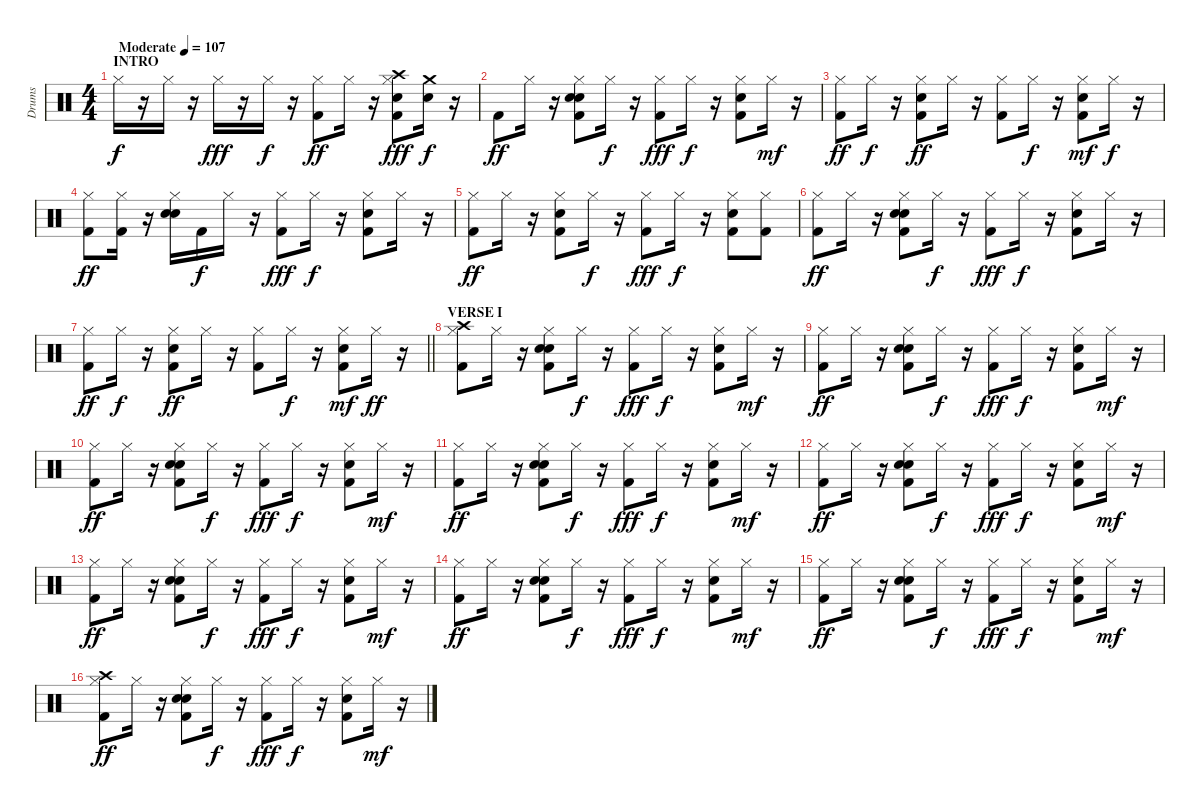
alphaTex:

\track ("Drums" "Drums") {instrument percussion}
\staff {score}
\articulation defaults
\ts (4 4)
\section ("" "INTRO")
\tempo (107 "Moderate")
\clef neutral
\ks c "Hi-Hat (closed)".16{dy f}
r.16 "Hi-Hat (closed)".16 r.16 "Hi-Hat (closed)".16{dy fff} r.16 "Hi-Hat (closed)".16{dy f} r.16 ("Kick (hit) 2" "Hi-Hat (closed)").8{dy ff} "Hi-Hat (closed)".16 r.16 ("Kick (hit) 2" "Electric Snare (hit)" "Hi-Hat (closed)" "Crash high (hit)").8{dy fff} ("Electric Snare (hit)" "Crash medium (hit)").16{dy f} r.16 |
"Kick (hit) 2".8{dy ff} "Hi-Hat (closed)".16 r.16 ("Kick (hit) 2" "Electric Snare (hit)" "Electric Snare (hit)" "Hi-Hat (closed)").8 "Hi-Hat (closed)".16{dy f} r.16 ("Kick (hit) 2" "Hi-Hat (closed)").8{dy fff} "Hi-Hat (closed)".16{dy f} r.16 ("Kick (hit) 2" "Electric Snare (hit)" "Hi-Hat (closed)").8 "Hi-Hat (closed)".16{dy mf} r.16 |
("Kick (hit) 2" "Hi-Hat (closed)").8{dy ff} "Hi-Hat (closed)".16{dy f} r.16 ("Kick (hit) 2" "Electric Snare (hit)" "Hi-Hat (closed)").8{dy ff} "Hi-Hat (closed)".16 r.16 ("Kick (hit) 2" "Hi-Hat (closed)").8 "Hi-Hat (closed)".16{dy f} r.16 ("Kick (hit) 2" "Electric Snare (hit)" "Hi-Hat (closed)").8{dy mf} "Hi-Hat (closed)".16{dy f} r.16 |
("Kick (hit) 2" "Hi-Hat (closed)").8{dy ff} ("Kick (hit) 2" "Hi-Hat (closed)").16 r.16 ("Electric Snare (hit)" "Electric Snare (hit)" "Hi-Hat (closed)").16 "Kick (hit) 2".16{dy f} "Hi-Hat (closed)".16 r.16 ("Kick (hit) 2" "Hi-Hat (closed)").8{dy fff} "Hi-Hat (closed)".16{dy f} r.16 ("Kick (hit) 2" "Electric Snare (hit)" "Hi-Hat (closed)").8 "Hi-Hat (closed)".16 r.16 |
("Kick (hit) 2" "Hi-Hat (closed)").8{dy ff} "Hi-Hat (closed)".16 r.16 ("Kick (hit) 2" "Electric Snare (hit)" "Hi-Hat (closed)").8 "Hi-Hat (closed)".16{dy f} r.16 ("Kick (hit) 2" "Hi-Hat (closed)").8{dy fff} "Hi-Hat (closed)".16{dy f} r.16 ("Kick (hit) 2" "Electric Snare (hit)" "Hi-Hat (closed)").8 ("Kick (hit) 2" "Hi-Hat (closed)").8 |
("Kick (hit) 2" "Hi-Hat (closed)").8{dy ff} "Hi-Hat (closed)".16 r.16 ("Kick (hit) 2" "Electric Snare (hit)" "Electric Snare (hit)" "Hi-Hat (closed)").8 "Hi-Hat (closed)".16{dy f} r.16 ("Kick (hit) 2" "Hi-Hat (closed)").8{dy fff} "Hi-Hat (closed)".16{dy f} r.16 ("Kick (hit) 2" "Electric Snare (hit)" "Hi-Hat (closed)").8 "Hi-Hat (closed)".16 r.16 |
\barLineRight lightlight
("Kick (hit) 2" "Hi-Hat (closed)").8{dy ff} "Hi-Hat (closed)".16{dy f} r.16 ("Kick (hit) 2" "Electric Snare (hit)" "Hi-Hat (closed)").8{dy ff} "Hi-Hat (closed)".16 r.16 ("Kick (hit) 2" "Hi-Hat (closed)").8 "Hi-Hat (closed)".16{dy f} r.16 ("Kick (hit) 2" "Electric Snare (hit)" "Hi-Hat (closed)").8{dy mf} "Hi-Hat (closed)".16{dy ff} r.16 |
\section ("" "VERSE I")
("Kick (hit) 2" "Hi-Hat (closed)" "Crash high (hit)").8 "Hi-Hat (closed)".16 r.16 ("Kick (hit) 2" "Electric Snare (hit)" "Electric Snare (hit)" "Hi-Hat (closed)").8 "Hi-Hat (closed)".16{dy f} r.16 ("Kick (hit) 2" "Hi-Hat (closed)").8{dy fff} "Hi-Hat (closed)".16{dy f} r.16 ("Kick (hit) 2" "Electric Snare (hit)" "Hi-Hat (closed)").8 "Hi-Hat (closed)".16{dy mf} r.16 |
("Kick (hit) 2" "Hi-Hat (closed)").8{dy ff} "Hi-Hat (closed)".16 r.16 ("Kick (hit) 2" "Electric Snare (hit)" "Electric Snare (hit)" "Hi-Hat (closed)").8 "Hi-Hat (closed)".16{dy f} r.16 ("Kick (hit) 2" "Hi-Hat (closed)").8{dy fff} "Hi-Hat (closed)".16{dy f} r.16 ("Kick (hit) 2" "Electric Snare (hit)" "Hi-Hat (closed)").8 "Hi-Hat (closed)".16{dy mf} r.16 |
("Kick (hit) 2" "Hi-Hat (closed)").8{dy ff} "Hi-Hat (closed)".16 r.16 ("Kick (hit) 2" "Electric Snare (hit)" "Electric Snare (hit)" "Hi-Hat (closed)").8 "Hi-Hat (closed)".16{dy f} r.16 ("Kick (hit) 2" "Hi-Hat (closed)").8{dy fff} "Hi-Hat (closed)".16{dy f} r.16 ("Kick (hit) 2" "Electric Snare (hit)" "Hi-Hat (closed)").8 "Hi-Hat (closed)".16{dy mf} r.16 |
("Kick (hit) 2" "Hi-Hat (closed)").8{dy ff} "Hi-Hat (closed)".16 r.16 ("Kick (hit) 2" "Electric Snare (hit)" "Electric Snare (hit)" "Hi-Hat (closed)").8 "Hi-Hat (closed)".16{dy f} r.16 ("Kick (hit) 2" "Hi-Hat (closed)").8{dy fff} "Hi-Hat (closed)".16{dy f} r.16 ("Kick (hit) 2" "Electric Snare (hit)" "Hi-Hat (closed)").8 "Hi-Hat (closed)".16{dy mf} r.16 |
("Kick (hit) 2" "Hi-Hat (closed)").8{dy ff} "Hi-Hat (closed)".16 r.16 ("Kick (hit) 2" "Electric Snare (hit)" "Electric Snare (hit)" "Hi-Hat (closed)").8 "Hi-Hat (closed)".16{dy f} r.16 ("Kick (hit) 2" "Hi-Hat (closed)").8{dy fff} "Hi-Hat (closed)".16{dy f} r.16 ("Kick (hit) 2" "Electric Snare (hit)" "Hi-Hat (closed)").8 "Hi-Hat (closed)".16{dy mf} r.16 |
("Kick (hit) 2" "Hi-Hat (closed)").8{dy ff} "Hi-Hat (closed)".16 r.16 ("Kick (hit) 2" "Electric Snare (hit)" "Electric Snare (hit)" "Hi-Hat (closed)").8 "Hi-Hat (closed)".16{dy f} r.16 ("Kick (hit) 2" "Hi-Hat (closed)").8{dy fff} "Hi-Hat (closed)".16{dy f} r.16 ("Kick (hit) 2" "Electric Snare (hit)" "Hi-Hat (closed)").8 "Hi-Hat (closed)".16{dy mf} r.16 |
("Kick (hit) 2" "Hi-Hat (closed)").8{dy ff} "Hi-Hat (closed)".16 r.16 ("Kick (hit) 2" "Electric Snare (hit)" "Electric Snare (hit)" "Hi-Hat (closed)").8 "Hi-Hat (closed)".16{dy f} r.16 ("Kick (hit) 2" "Hi-Hat (closed)").8{dy fff} "Hi-Hat (closed)".16{dy f} r.16 ("Kick (hit) 2" "Electric Snare (hit)" "Hi-Hat (closed)").8 "Hi-Hat (closed)".16{dy mf} r.16 |
("Kick (hit) 2" "Hi-Hat (closed)").8{dy ff} "Hi-Hat (closed)".16 r.16 ("Kick (hit) 2" "Electric Snare (hit)" "Electric Snare (hit)" "Hi-Hat (closed)").8 "Hi-Hat (closed)".16{dy f} r.16 ("Kick (hit) 2" "Hi-Hat (closed)").8{dy fff} "Hi-Hat (closed)".16{dy f} r.16 ("Kick (hit) 2" "Electric Snare (hit)" "Hi-Hat (closed)").8 "Hi-Hat (closed)".16{dy mf} r.16 |
("Kick (hit) 2" "Hi-Hat (closed)" "Crash high (hit)").8{dy ff} "Hi-Hat (closed)".16 r.16 ("Kick (hit) 2" "Electric Snare (hit)" "Electric Snare (hit)" "Hi-Hat (closed)").8 "Hi-Hat (closed)".16{dy f} r.16 ("Kick (hit) 2" "Hi-Hat (closed)").8{dy fff} "Hi-Hat (closed)".16{dy f} r.16 ("Kick (hit) 2" "Electric Snare (hit)" "Hi-Hat (closed)").8 "Hi-Hat (closed)".16{dy mf} r.16
